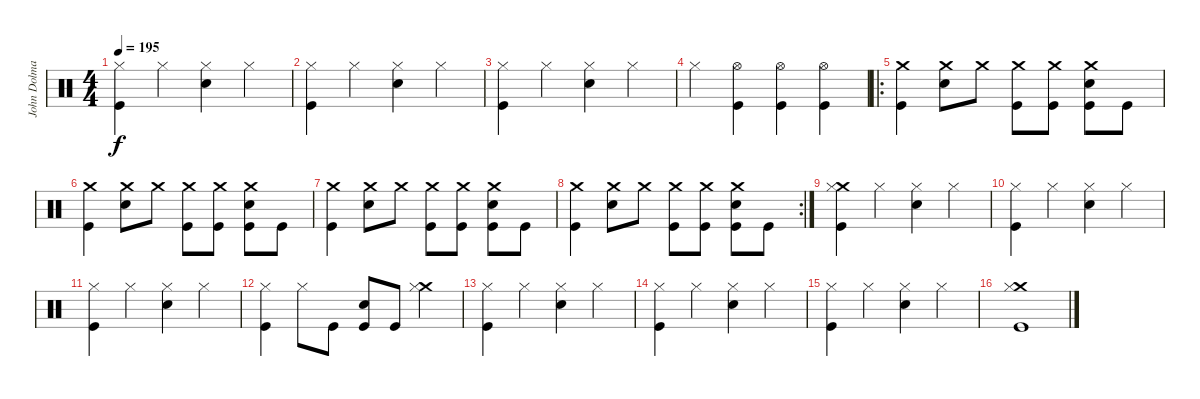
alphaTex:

\track ("John Dolmayan" "John Dolma") {instrument percussion}
\staff {score}
\articulation defaults
\ts (4 4)
\tempo 195
\clef neutral
\ks c
("Hi-Hat (closed)" "Kick (hit)").4{dy f} "Hi-Hat (closed)".4 ("Hi-Hat (closed)" "Snare (hit) 2").4 "Hi-Hat (closed)".4 |
("Hi-Hat (closed)" "Kick (hit)").4 "Hi-Hat (closed)".4 ("Hi-Hat (closed)" "Snare (hit) 2").4 "Hi-Hat (closed)".4 |
("Hi-Hat (closed)" "Kick (hit)").4 "Hi-Hat (closed)".4 ("Hi-Hat (closed)" "Snare (hit) 2").4 "Hi-Hat (closed)".4 |
"Hi-Hat (closed)".4 ("Hi-Hat (open)" "Kick (hit)").4 ("Hi-Hat (open)" "Kick (hit)").4 ("Hi-Hat (open)" "Kick (hit)").4 |
\ro
("Crash medium (hit)" "Kick (hit)").4 ("Crash medium (hit)" "Snare (hit) 2").8 "Crash medium (hit)".8 ("Crash medium (hit)" "Kick (hit)").8 ("Crash medium (hit)" "Kick (hit)").8 ("Crash medium (hit)" "Snare (hit) 2" "Kick (hit)").8 "Kick (hit)".8 |
("Crash medium (hit)" "Kick (hit)").4 ("Crash medium (hit)" "Snare (hit) 2").8 "Crash medium (hit)".8 ("Crash medium (hit)" "Kick (hit)").8 ("Crash medium (hit)" "Kick (hit)").8 ("Crash medium (hit)" "Snare (hit) 2" "Kick (hit)").8 "Kick (hit)".8 |
("Crash medium (hit)" "Kick (hit)").4 ("Crash medium (hit)" "Snare (hit) 2").8 "Crash medium (hit)".8 ("Crash medium (hit)" "Kick (hit)").8 ("Crash medium (hit)" "Kick (hit)").8 ("Crash medium (hit)" "Snare (hit) 2" "Kick (hit)").8 "Kick (hit)".8 |
\rc 2
("Crash medium (hit)" "Kick (hit)").4 ("Crash medium (hit)" "Snare (hit) 2").8 "Crash medium (hit)".8 ("Crash medium (hit)" "Kick (hit)").8 ("Crash medium (hit)" "Kick (hit)").8 ("Crash medium (hit)" "Snare (hit) 2" "Kick (hit)").8 "Kick (hit)".8 |
("Crash medium (hit)" "Hi-Hat (closed)" "Kick (hit)").4 "Hi-Hat (closed)".4 ("Hi-Hat (closed)" "Snare (hit) 2").4 "Hi-Hat (closed)".4 |
("Hi-Hat (closed)" "Kick (hit)").4 "Hi-Hat (closed)".4 ("Hi-Hat (closed)" "Snare (hit) 2").4 "Hi-Hat (closed)".4 |
("Hi-Hat (closed)" "Kick (hit)").4 "Hi-Hat (closed)".4 ("Hi-Hat (closed)" "Snare (hit) 2").4 "Hi-Hat (closed)".4 |
("Hi-Hat (closed)" "Kick (hit)").4 "Hi-Hat (closed)".8 "Kick (hit)".8 ("Snare (hit) 2" "Kick (hit)").8 "Kick (hit)".8 ("Crash medium (hit)" "Hi-Hat (closed)").4 |
("Hi-Hat (closed)" "Kick (hit)").4 "Hi-Hat (closed)".4 ("Hi-Hat (closed)" "Snare (hit) 2").4 "Hi-Hat (closed)".4 |
("Hi-Hat (closed)" "Kick (hit)").4 "Hi-Hat (closed)".4 ("Hi-Hat (closed)" "Snare (hit) 2").4 "Hi-Hat (closed)".4 |
("Hi-Hat (closed)" "Kick (hit)").4 "Hi-Hat (closed)".4 ("Hi-Hat (closed)" "Snare (hit) 2").4 "Hi-Hat (closed)".4 |
("Crash medium (hit)" "Hi-Hat (closed)" "Kick (hit)").1
